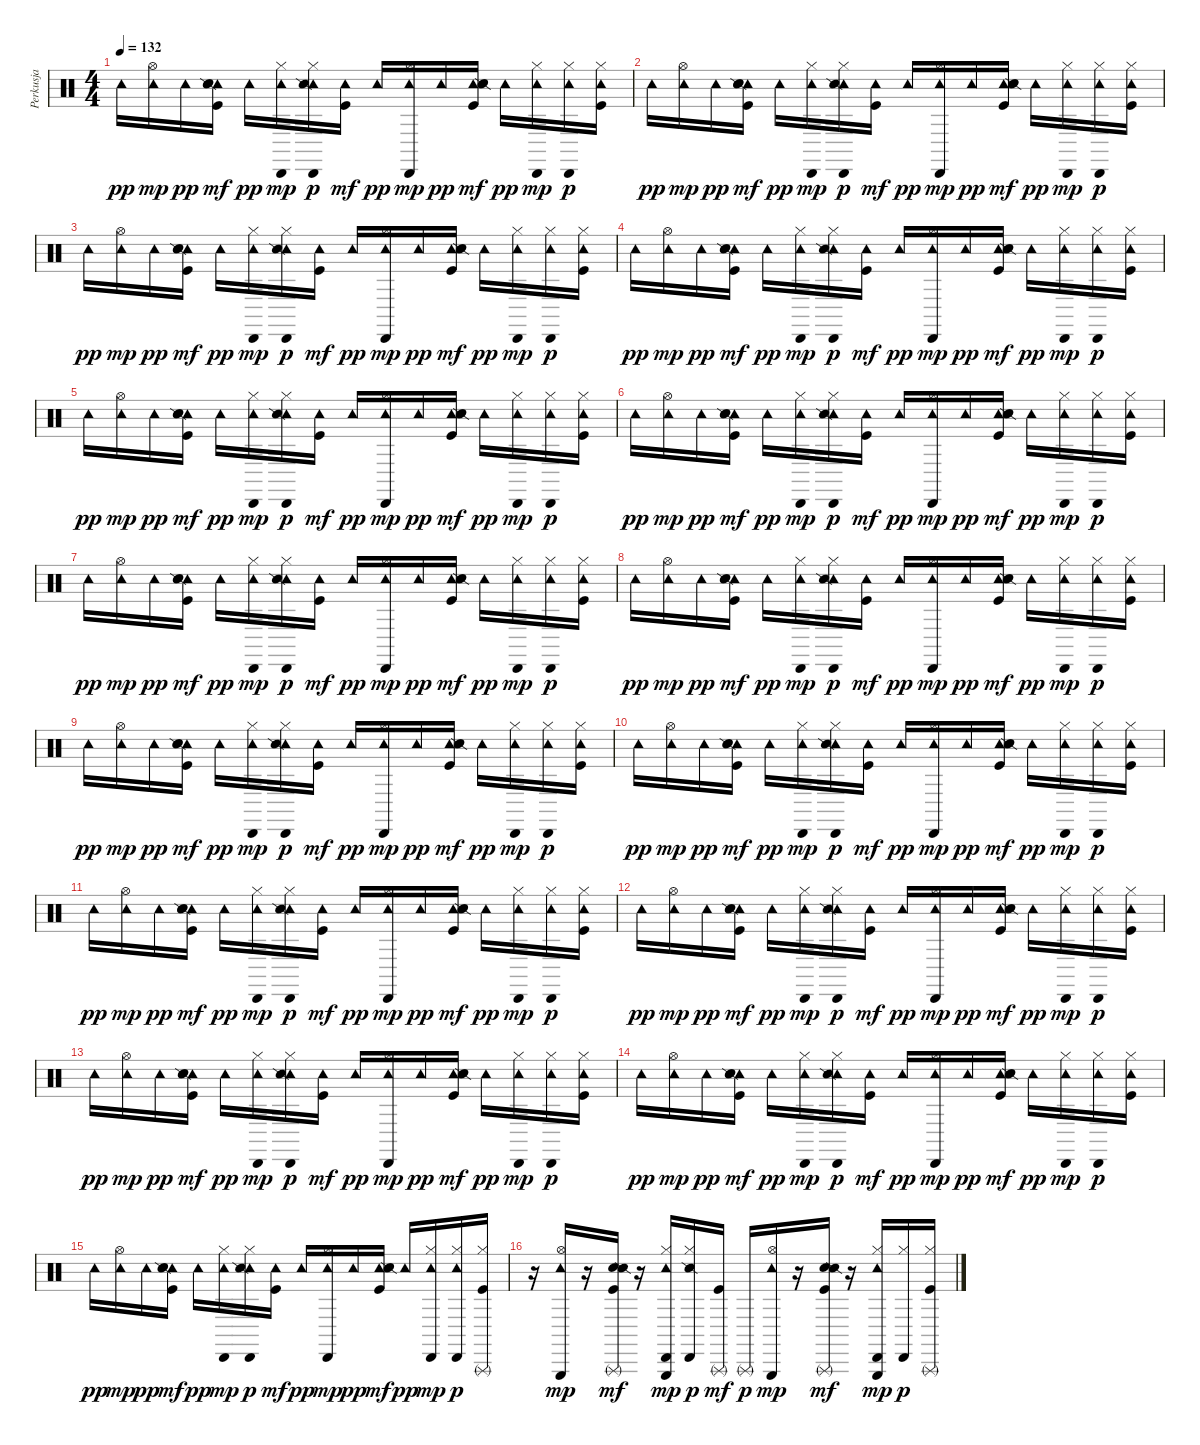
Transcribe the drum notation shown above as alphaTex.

\track ("Perkusja" "Perkusja") {instrument percussion}
\staff {score}
\articulation defaults
\ts (4 4)
\tempo 132
\clef neutral
\ks c "Tambourine (hit)".16{dy pp}
("Tambourine (hit)" "Hi-Hat (open)").16{dy mp} "Tambourine (hit)".16{dy pp} ("Tambourine (hit)" "Snare (hit) 2" "Snare (side stick) 2" "Kick (hit)").16{dy mf} "Tambourine (hit)".16{dy pp} ("Tambourine (hit)" "Cabasa (hit)" "Hi-Hat (closed)").16{dy mp} ("Tambourine (hit)" "Snare (side stick) 2" "Cabasa (hit)" "Hi-Hat (closed)").16{dy p} ("Tambourine (hit)" "Kick (hit)").16{dy mf} "Tambourine (hit)".16{dy pp} ("Tambourine (hit)" "Cabasa (hit)" "Hi-Hat (open)").16{dy mp} "Tambourine (hit)".16{dy pp} ("Tambourine (hit)" "Snare (hit) 2" "Snare (side stick) 2" "Kick (hit)").16{dy mf} "Tambourine (hit)".16{dy pp} ("Tambourine (hit)" "Cabasa (hit)" "Hi-Hat (closed)").16{dy mp} ("Tambourine (hit)" "Cabasa (hit)" "Hi-Hat (closed)").16{dy p} ("Tambourine (hit)" "Kick (hit)" "Hi-Hat (closed)").16 |
"Tambourine (hit)".16{dy pp} ("Tambourine (hit)" "Hi-Hat (open)").16{dy mp} "Tambourine (hit)".16{dy pp} ("Tambourine (hit)" "Snare (hit) 2" "Snare (side stick) 2" "Kick (hit)").16{dy mf} "Tambourine (hit)".16{dy pp} ("Tambourine (hit)" "Cabasa (hit)" "Hi-Hat (closed)").16{dy mp} ("Tambourine (hit)" "Snare (side stick) 2" "Cabasa (hit)" "Hi-Hat (closed)").16{dy p} ("Tambourine (hit)" "Kick (hit)").16{dy mf} "Tambourine (hit)".16{dy pp} ("Tambourine (hit)" "Cabasa (hit)" "Hi-Hat (open)").16{dy mp} "Tambourine (hit)".16{dy pp} ("Tambourine (hit)" "Snare (hit) 2" "Snare (side stick) 2" "Kick (hit)").16{dy mf} "Tambourine (hit)".16{dy pp} ("Tambourine (hit)" "Cabasa (hit)" "Hi-Hat (closed)").16{dy mp} ("Tambourine (hit)" "Cabasa (hit)" "Hi-Hat (closed)").16{dy p} ("Tambourine (hit)" "Kick (hit)" "Hi-Hat (closed)").16 |
"Tambourine (hit)".16{dy pp} ("Tambourine (hit)" "Hi-Hat (open)").16{dy mp} "Tambourine (hit)".16{dy pp} ("Tambourine (hit)" "Snare (hit) 2" "Snare (side stick) 2" "Kick (hit)").16{dy mf} "Tambourine (hit)".16{dy pp} ("Tambourine (hit)" "Cabasa (hit)" "Hi-Hat (closed)").16{dy mp} ("Tambourine (hit)" "Snare (side stick) 2" "Cabasa (hit)" "Hi-Hat (closed)").16{dy p} ("Tambourine (hit)" "Kick (hit)").16{dy mf} "Tambourine (hit)".16{dy pp} ("Tambourine (hit)" "Cabasa (hit)" "Hi-Hat (open)").16{dy mp} "Tambourine (hit)".16{dy pp} ("Tambourine (hit)" "Snare (hit) 2" "Snare (side stick) 2" "Kick (hit)").16{dy mf} "Tambourine (hit)".16{dy pp} ("Tambourine (hit)" "Cabasa (hit)" "Hi-Hat (closed)").16{dy mp} ("Tambourine (hit)" "Cabasa (hit)" "Hi-Hat (closed)").16{dy p} ("Tambourine (hit)" "Kick (hit)" "Hi-Hat (closed)").16 |
"Tambourine (hit)".16{dy pp} ("Tambourine (hit)" "Hi-Hat (open)").16{dy mp} "Tambourine (hit)".16{dy pp} ("Tambourine (hit)" "Snare (hit) 2" "Snare (side stick) 2" "Kick (hit)").16{dy mf} "Tambourine (hit)".16{dy pp} ("Tambourine (hit)" "Cabasa (hit)" "Hi-Hat (closed)").16{dy mp} ("Tambourine (hit)" "Snare (side stick) 2" "Cabasa (hit)" "Hi-Hat (closed)").16{dy p} ("Tambourine (hit)" "Kick (hit)").16{dy mf} "Tambourine (hit)".16{dy pp} ("Tambourine (hit)" "Cabasa (hit)" "Hi-Hat (open)").16{dy mp} "Tambourine (hit)".16{dy pp} ("Tambourine (hit)" "Snare (hit) 2" "Snare (side stick) 2" "Kick (hit)").16{dy mf} "Tambourine (hit)".16{dy pp} ("Tambourine (hit)" "Cabasa (hit)" "Hi-Hat (closed)").16{dy mp} ("Tambourine (hit)" "Cabasa (hit)" "Hi-Hat (closed)").16{dy p} ("Tambourine (hit)" "Kick (hit)" "Hi-Hat (closed)").16 |
"Tambourine (hit)".16{dy pp} ("Tambourine (hit)" "Hi-Hat (open)").16{dy mp} "Tambourine (hit)".16{dy pp} ("Tambourine (hit)" "Snare (hit) 2" "Snare (side stick) 2" "Kick (hit)").16{dy mf} "Tambourine (hit)".16{dy pp} ("Tambourine (hit)" "Cabasa (hit)" "Hi-Hat (closed)").16{dy mp} ("Tambourine (hit)" "Snare (side stick) 2" "Cabasa (hit)" "Hi-Hat (closed)").16{dy p} ("Tambourine (hit)" "Kick (hit)").16{dy mf} "Tambourine (hit)".16{dy pp} ("Tambourine (hit)" "Cabasa (hit)" "Hi-Hat (open)").16{dy mp} "Tambourine (hit)".16{dy pp} ("Tambourine (hit)" "Snare (hit) 2" "Snare (side stick) 2" "Kick (hit)").16{dy mf} "Tambourine (hit)".16{dy pp} ("Tambourine (hit)" "Cabasa (hit)" "Hi-Hat (closed)").16{dy mp} ("Tambourine (hit)" "Cabasa (hit)" "Hi-Hat (closed)").16{dy p} ("Tambourine (hit)" "Kick (hit)" "Hi-Hat (closed)").16 |
"Tambourine (hit)".16{dy pp} ("Tambourine (hit)" "Hi-Hat (open)").16{dy mp} "Tambourine (hit)".16{dy pp} ("Tambourine (hit)" "Snare (hit) 2" "Snare (side stick) 2" "Kick (hit)").16{dy mf} "Tambourine (hit)".16{dy pp} ("Tambourine (hit)" "Cabasa (hit)" "Hi-Hat (closed)").16{dy mp} ("Tambourine (hit)" "Snare (side stick) 2" "Cabasa (hit)" "Hi-Hat (closed)").16{dy p} ("Tambourine (hit)" "Kick (hit)").16{dy mf} "Tambourine (hit)".16{dy pp} ("Tambourine (hit)" "Cabasa (hit)" "Hi-Hat (open)").16{dy mp} "Tambourine (hit)".16{dy pp} ("Tambourine (hit)" "Snare (hit) 2" "Snare (side stick) 2" "Kick (hit)").16{dy mf} "Tambourine (hit)".16{dy pp} ("Tambourine (hit)" "Cabasa (hit)" "Hi-Hat (closed)").16{dy mp} ("Tambourine (hit)" "Cabasa (hit)" "Hi-Hat (closed)").16{dy p} ("Tambourine (hit)" "Kick (hit)" "Hi-Hat (closed)").16 |
"Tambourine (hit)".16{dy pp} ("Tambourine (hit)" "Hi-Hat (open)").16{dy mp} "Tambourine (hit)".16{dy pp} ("Tambourine (hit)" "Snare (hit) 2" "Snare (side stick) 2" "Kick (hit)").16{dy mf} "Tambourine (hit)".16{dy pp} ("Tambourine (hit)" "Cabasa (hit)" "Hi-Hat (closed)").16{dy mp} ("Tambourine (hit)" "Snare (side stick) 2" "Cabasa (hit)" "Hi-Hat (closed)").16{dy p} ("Tambourine (hit)" "Kick (hit)").16{dy mf} "Tambourine (hit)".16{dy pp} ("Tambourine (hit)" "Cabasa (hit)" "Hi-Hat (open)").16{dy mp} "Tambourine (hit)".16{dy pp} ("Tambourine (hit)" "Snare (hit) 2" "Snare (side stick) 2" "Kick (hit)").16{dy mf} "Tambourine (hit)".16{dy pp} ("Tambourine (hit)" "Cabasa (hit)" "Hi-Hat (closed)").16{dy mp} ("Tambourine (hit)" "Cabasa (hit)" "Hi-Hat (closed)").16{dy p} ("Tambourine (hit)" "Kick (hit)" "Hi-Hat (closed)").16 |
"Tambourine (hit)".16{dy pp} ("Tambourine (hit)" "Hi-Hat (open)").16{dy mp} "Tambourine (hit)".16{dy pp} ("Tambourine (hit)" "Snare (hit) 2" "Snare (side stick) 2" "Kick (hit)").16{dy mf} "Tambourine (hit)".16{dy pp} ("Tambourine (hit)" "Cabasa (hit)" "Hi-Hat (closed)").16{dy mp} ("Tambourine (hit)" "Snare (side stick) 2" "Cabasa (hit)" "Hi-Hat (closed)").16{dy p} ("Tambourine (hit)" "Kick (hit)").16{dy mf} "Tambourine (hit)".16{dy pp} ("Tambourine (hit)" "Cabasa (hit)" "Hi-Hat (open)").16{dy mp} "Tambourine (hit)".16{dy pp} ("Tambourine (hit)" "Snare (hit) 2" "Snare (side stick) 2" "Kick (hit)").16{dy mf} "Tambourine (hit)".16{dy pp} ("Tambourine (hit)" "Cabasa (hit)" "Hi-Hat (closed)").16{dy mp} ("Tambourine (hit)" "Cabasa (hit)" "Hi-Hat (closed)").16{dy p} ("Tambourine (hit)" "Kick (hit)" "Hi-Hat (closed)").16 |
"Tambourine (hit)".16{dy pp} ("Tambourine (hit)" "Hi-Hat (open)").16{dy mp} "Tambourine (hit)".16{dy pp} ("Tambourine (hit)" "Snare (hit) 2" "Snare (side stick) 2" "Kick (hit)").16{dy mf} "Tambourine (hit)".16{dy pp} ("Tambourine (hit)" "Cabasa (hit)" "Hi-Hat (closed)").16{dy mp} ("Tambourine (hit)" "Snare (side stick) 2" "Cabasa (hit)" "Hi-Hat (closed)").16{dy p} ("Tambourine (hit)" "Kick (hit)").16{dy mf} "Tambourine (hit)".16{dy pp} ("Tambourine (hit)" "Cabasa (hit)" "Hi-Hat (open)").16{dy mp} "Tambourine (hit)".16{dy pp} ("Tambourine (hit)" "Snare (hit) 2" "Snare (side stick) 2" "Kick (hit)").16{dy mf} "Tambourine (hit)".16{dy pp} ("Tambourine (hit)" "Cabasa (hit)" "Hi-Hat (closed)").16{dy mp} ("Tambourine (hit)" "Cabasa (hit)" "Hi-Hat (closed)").16{dy p} ("Tambourine (hit)" "Kick (hit)" "Hi-Hat (closed)").16 |
"Tambourine (hit)".16{dy pp} ("Tambourine (hit)" "Hi-Hat (open)").16{dy mp} "Tambourine (hit)".16{dy pp} ("Tambourine (hit)" "Snare (hit) 2" "Snare (side stick) 2" "Kick (hit)").16{dy mf} "Tambourine (hit)".16{dy pp} ("Tambourine (hit)" "Cabasa (hit)" "Hi-Hat (closed)").16{dy mp} ("Tambourine (hit)" "Snare (side stick) 2" "Cabasa (hit)" "Hi-Hat (closed)").16{dy p} ("Tambourine (hit)" "Kick (hit)").16{dy mf} "Tambourine (hit)".16{dy pp} ("Tambourine (hit)" "Cabasa (hit)" "Hi-Hat (open)").16{dy mp} "Tambourine (hit)".16{dy pp} ("Tambourine (hit)" "Snare (hit) 2" "Snare (side stick) 2" "Kick (hit)").16{dy mf} "Tambourine (hit)".16{dy pp} ("Tambourine (hit)" "Cabasa (hit)" "Hi-Hat (closed)").16{dy mp} ("Tambourine (hit)" "Cabasa (hit)" "Hi-Hat (closed)").16{dy p} ("Tambourine (hit)" "Kick (hit)" "Hi-Hat (closed)").16 |
"Tambourine (hit)".16{dy pp} ("Tambourine (hit)" "Hi-Hat (open)").16{dy mp} "Tambourine (hit)".16{dy pp} ("Tambourine (hit)" "Snare (hit) 2" "Snare (side stick) 2" "Kick (hit)").16{dy mf} "Tambourine (hit)".16{dy pp} ("Tambourine (hit)" "Cabasa (hit)" "Hi-Hat (closed)").16{dy mp} ("Tambourine (hit)" "Snare (side stick) 2" "Cabasa (hit)" "Hi-Hat (closed)").16{dy p} ("Tambourine (hit)" "Kick (hit)").16{dy mf} "Tambourine (hit)".16{dy pp} ("Tambourine (hit)" "Cabasa (hit)" "Hi-Hat (open)").16{dy mp} "Tambourine (hit)".16{dy pp} ("Tambourine (hit)" "Snare (hit) 2" "Snare (side stick) 2" "Kick (hit)").16{dy mf} "Tambourine (hit)".16{dy pp} ("Tambourine (hit)" "Cabasa (hit)" "Hi-Hat (closed)").16{dy mp} ("Tambourine (hit)" "Cabasa (hit)" "Hi-Hat (closed)").16{dy p} ("Tambourine (hit)" "Kick (hit)" "Hi-Hat (closed)").16 |
"Tambourine (hit)".16{dy pp} ("Tambourine (hit)" "Hi-Hat (open)").16{dy mp} "Tambourine (hit)".16{dy pp} ("Tambourine (hit)" "Snare (hit) 2" "Snare (side stick) 2" "Kick (hit)").16{dy mf} "Tambourine (hit)".16{dy pp} ("Tambourine (hit)" "Cabasa (hit)" "Hi-Hat (closed)").16{dy mp} ("Tambourine (hit)" "Snare (side stick) 2" "Cabasa (hit)" "Hi-Hat (closed)").16{dy p} ("Tambourine (hit)" "Kick (hit)").16{dy mf} "Tambourine (hit)".16{dy pp} ("Tambourine (hit)" "Cabasa (hit)" "Hi-Hat (open)").16{dy mp} "Tambourine (hit)".16{dy pp} ("Tambourine (hit)" "Snare (hit) 2" "Snare (side stick) 2" "Kick (hit)").16{dy mf} "Tambourine (hit)".16{dy pp} ("Tambourine (hit)" "Cabasa (hit)" "Hi-Hat (closed)").16{dy mp} ("Tambourine (hit)" "Cabasa (hit)" "Hi-Hat (closed)").16{dy p} ("Tambourine (hit)" "Kick (hit)" "Hi-Hat (closed)").16 |
"Tambourine (hit)".16{dy pp} ("Tambourine (hit)" "Hi-Hat (open)").16{dy mp} "Tambourine (hit)".16{dy pp} ("Tambourine (hit)" "Snare (hit) 2" "Snare (side stick) 2" "Kick (hit)").16{dy mf} "Tambourine (hit)".16{dy pp} ("Tambourine (hit)" "Cabasa (hit)" "Hi-Hat (closed)").16{dy mp} ("Tambourine (hit)" "Snare (side stick) 2" "Cabasa (hit)" "Hi-Hat (closed)").16{dy p} ("Tambourine (hit)" "Kick (hit)").16{dy mf} "Tambourine (hit)".16{dy pp} ("Tambourine (hit)" "Cabasa (hit)" "Hi-Hat (open)").16{dy mp} "Tambourine (hit)".16{dy pp} ("Tambourine (hit)" "Snare (hit) 2" "Snare (side stick) 2" "Kick (hit)").16{dy mf} "Tambourine (hit)".16{dy pp} ("Tambourine (hit)" "Cabasa (hit)" "Hi-Hat (closed)").16{dy mp} ("Tambourine (hit)" "Cabasa (hit)" "Hi-Hat (closed)").16{dy p} ("Tambourine (hit)" "Kick (hit)" "Hi-Hat (closed)").16 |
"Tambourine (hit)".16{dy pp} ("Tambourine (hit)" "Hi-Hat (open)").16{dy mp} "Tambourine (hit)".16{dy pp} ("Tambourine (hit)" "Snare (hit) 2" "Snare (side stick) 2" "Kick (hit)").16{dy mf} "Tambourine (hit)".16{dy pp} ("Tambourine (hit)" "Cabasa (hit)" "Hi-Hat (closed)").16{dy mp} ("Tambourine (hit)" "Snare (side stick) 2" "Cabasa (hit)" "Hi-Hat (closed)").16{dy p} ("Tambourine (hit)" "Kick (hit)").16{dy mf} "Tambourine (hit)".16{dy pp} ("Tambourine (hit)" "Cabasa (hit)" "Hi-Hat (open)").16{dy mp} "Tambourine (hit)".16{dy pp} ("Tambourine (hit)" "Snare (hit) 2" "Snare (side stick) 2" "Kick (hit)").16{dy mf} "Tambourine (hit)".16{dy pp} ("Tambourine (hit)" "Cabasa (hit)" "Hi-Hat (closed)").16{dy mp} ("Tambourine (hit)" "Cabasa (hit)" "Hi-Hat (closed)").16{dy p} ("Tambourine (hit)" "Kick (hit)" "Hi-Hat (closed)").16 |
"Tambourine (hit)".16{dy pp} ("Tambourine (hit)" "Hi-Hat (open)").16{dy mp} "Tambourine (hit)".16{dy pp} ("Tambourine (hit)" "Snare (hit) 2" "Snare (side stick) 2" "Kick (hit)").16{dy mf} "Tambourine (hit)".16{dy pp} ("Tambourine (hit)" "Cabasa (hit)" "Hi-Hat (closed)").16{dy mp} ("Tambourine (hit)" "Snare (side stick) 2" "Cabasa (hit)" "Hi-Hat (closed)").16{dy p} ("Tambourine (hit)" "Kick (hit)").16{dy mf} "Tambourine (hit)".16{dy pp} ("Tambourine (hit)" "Cabasa (hit)" "Hi-Hat (open)").16{dy mp} "Tambourine (hit)".16{dy pp} ("Tambourine (hit)" "Snare (hit) 2" "Snare (side stick) 2" "Kick (hit)").16{dy mf} "Tambourine (hit)".16{dy pp} ("Tambourine (hit)" "Cabasa (hit)" "Hi-Hat (closed)").16{dy mp} ("Tambourine (hit)" "Cabasa (hit)" "Hi-Hat (closed)").16{dy p} ("Triangle (rnute)" "Kick (hit)" "Hi-Hat (closed)").16 |
r.16 ("Tambourine (hit)" "Triangle (hit)" "Hi-Hat (open)").16{dy mp} r.16 ("Snare (hit) 2" "Snare (side stick) 2" "Triangle (rnute)" "Kick (hit)").16{dy mf} r.16 ("Tambourine (hit)" "Cabasa (hit)" "Triangle (hit)" "Hi-Hat (closed)").16{dy mp} ("Snare (side stick) 2" "Cabasa (hit)" "Hi-Hat (closed)").16{dy p} ("Triangle (rnute)" "Kick (hit)").16{dy mf} "Triangle (rnute)".16{dy p} ("Tambourine (hit)" "Triangle (hit)" "Hi-Hat (open)").16{dy mp} r.16 ("Snare (hit) 2" "Snare (side stick) 2" "Triangle (rnute)" "Kick (hit)").16{dy mf} r.16 ("Tambourine (hit)" "Cabasa (hit)" "Triangle (hit)" "Hi-Hat (closed)").16{dy mp} ("Cabasa (hit)" "Hi-Hat (closed)").16{dy p} ("Triangle (rnute)" "Kick (hit)" "Hi-Hat (closed)").16
